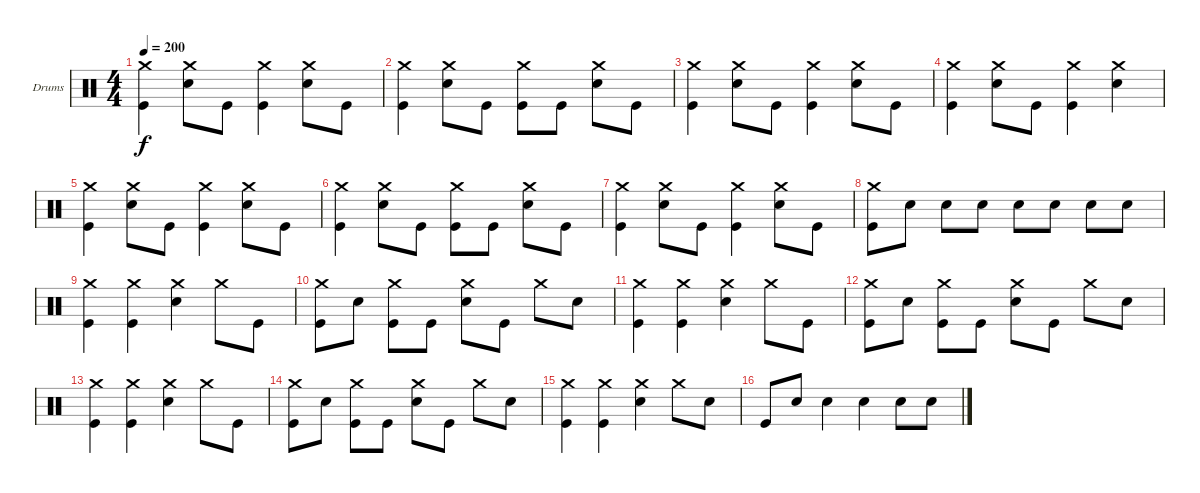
\bracketExtendMode groupsimilarinstruments
\firstSystemTrackNameOrientation horizontal
\otherSystemsTrackNameOrientation horizontal
\track ("Drumkit" "Drums") {instrument percussion}
\staff {score}
\articulation defaults
\ts (4 4)
\tempo 200
\clef neutral
\ks c
("Crash medium (hit)" "Kick (hit)").4{dy f} ("Snare (hit) 2" "Crash medium (hit)").8 "Kick (hit)".8 ("Kick (hit)" "Crash medium (hit)").4 ("Snare (hit) 2" "Crash medium (hit)").8 "Kick (hit)".8 |
("Kick (hit)" "Crash medium (hit)").4 ("Snare (hit) 2" "Crash medium (hit)").8 "Kick (hit)".8 ("Kick (hit)" "Crash medium (hit)").8 "Kick (hit)".8 ("Snare (hit) 2" "Crash medium (hit)").8 "Kick (hit)".8 |
("Crash medium (hit)" "Kick (hit)").4 ("Snare (hit) 2" "Crash medium (hit)").8 "Kick (hit)".8 ("Kick (hit)" "Crash medium (hit)").4 ("Snare (hit) 2" "Crash medium (hit)").8 "Kick (hit)".8 |
("Kick (hit)" "Crash medium (hit)").4 ("Snare (hit) 2" "Crash medium (hit)").8 "Kick (hit)".8 ("Kick (hit)" "Crash medium (hit)").4 ("Snare (hit) 2" "Crash medium (hit)").4 |
("Kick (hit)" "Crash medium (hit)").4 ("Snare (hit) 2" "Crash medium (hit)").8 "Kick (hit)".8 ("Kick (hit)" "Crash medium (hit)").4 ("Snare (hit) 2" "Crash medium (hit)").8 "Kick (hit)".8 |
("Kick (hit)" "Crash medium (hit)").4 ("Snare (hit) 2" "Crash medium (hit)").8 "Kick (hit)".8 ("Kick (hit)" "Crash medium (hit)").8 "Kick (hit)".8 ("Snare (hit) 2" "Crash medium (hit)").8 "Kick (hit)".8 |
("Crash medium (hit)" "Kick (hit)").4 ("Snare (hit) 2" "Crash medium (hit)").8 "Kick (hit)".8 ("Kick (hit)" "Crash medium (hit)").4 ("Snare (hit) 2" "Crash medium (hit)").8 "Kick (hit)".8 |
("Kick (hit)" "Crash medium (hit)").8 "Snare (hit) 2".8 "Snare (hit) 2".8 "Snare (hit) 2".8 "Snare (hit) 2".8 "Snare (hit) 2".8 "Snare (hit) 2".8 "Snare (hit) 2".8 |
("Kick (hit)" "Crash medium (hit)").4 ("Kick (hit)" "Crash medium (hit)").4 ("Snare (hit) 2" "Crash medium (hit)").4 "Crash medium (hit)".8 "Kick (hit)".8 |
("Kick (hit)" "Crash medium (hit)").8 "Snare (hit) 2".8 ("Kick (hit)" "Crash medium (hit)").8 "Kick (hit)".8 ("Snare (hit) 2" "Crash medium (hit)").8 "Kick (hit)".8 "Crash medium (hit)".8 "Snare (hit) 2".8 |
("Kick (hit)" "Crash medium (hit)").4 ("Kick (hit)" "Crash medium (hit)").4 ("Snare (hit) 2" "Crash medium (hit)").4 "Crash medium (hit)".8 "Kick (hit)".8 |
("Kick (hit)" "Crash medium (hit)").8 "Snare (hit) 2".8 ("Kick (hit)" "Crash medium (hit)").8 "Kick (hit)".8 ("Snare (hit) 2" "Crash medium (hit)").8 "Kick (hit)".8 "Crash medium (hit)".8 "Snare (hit) 2".8 |
("Kick (hit)" "Crash medium (hit)").4 ("Kick (hit)" "Crash medium (hit)").4 ("Snare (hit) 2" "Crash medium (hit)").4 "Crash medium (hit)".8 "Kick (hit)".8 |
("Kick (hit)" "Crash medium (hit)").8 "Snare (hit) 2".8 ("Kick (hit)" "Crash medium (hit)").8 "Kick (hit)".8 ("Snare (hit) 2" "Crash medium (hit)").8 "Kick (hit)".8 "Crash medium (hit)".8 "Snare (hit) 2".8 |
("Kick (hit)" "Crash medium (hit)").4 ("Kick (hit)" "Crash medium (hit)").4 ("Snare (hit) 2" "Crash medium (hit)").4 "Crash medium (hit)".8 "Snare (hit) 2".8 |
"Kick (hit)".8 "Snare (hit) 2".8 "Snare (hit) 2".4 "Snare (hit) 2".4 "Snare (hit) 2".8 "Snare (hit) 2".8
